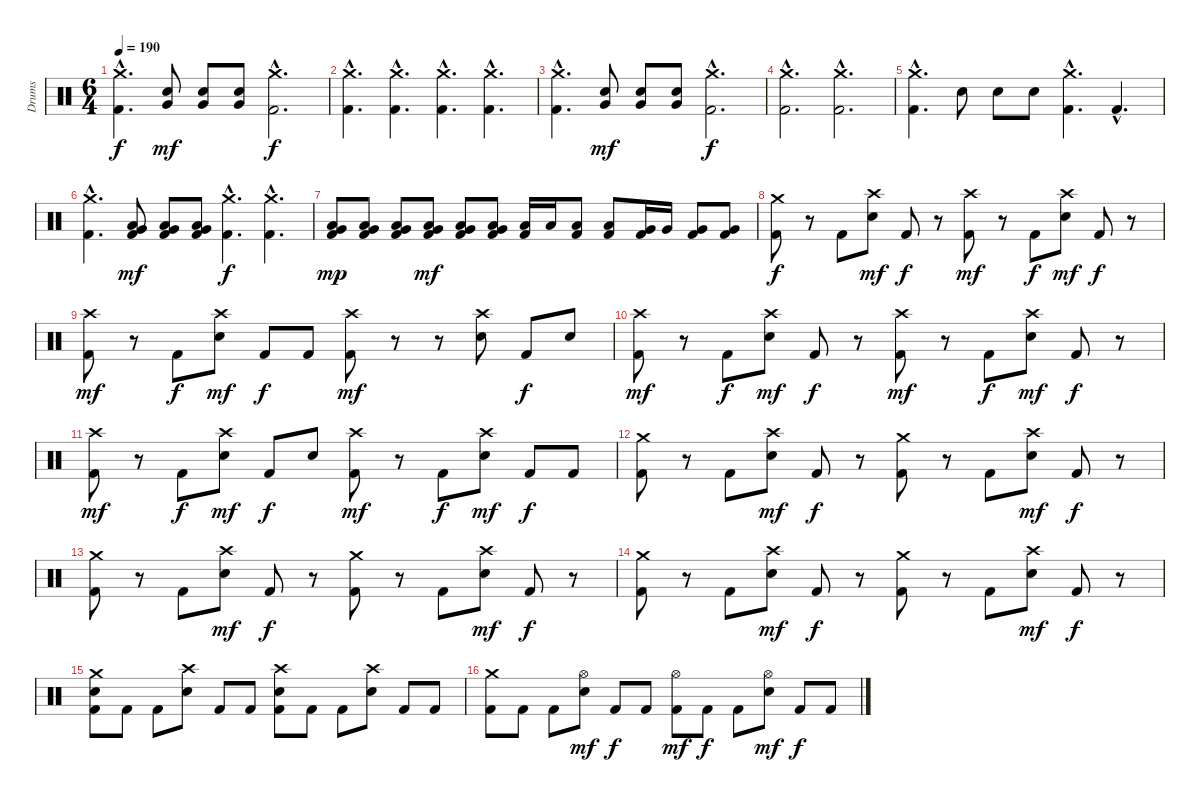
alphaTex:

\track ("Drums" "Drums") {instrument percussion}
\staff {score}
\articulation defaults
\ts (6 4)
\tempo 190
\clef neutral
\ks c
("Crash medium (hit)"{hac} "Kick (hit) 2"{hac}).4{d dy f} ("Very Low Tom (hit)" "Snare (hit) 2").8{dy mf} ("Very Low Tom (hit)" "Snare (hit) 2").8 ("Very Low Tom (hit)" "Snare (hit) 2").8 ("Crash medium (hit)"{hac} "Kick (hit) 2"{hac}).2{d dy f} |
("Crash medium (hit)"{hac} "Kick (hit) 2"{hac}).4{d} ("Crash medium (hit)"{hac} "Kick (hit) 2"{hac}).4{d} ("Crash medium (hit)"{hac} "Kick (hit) 2"{hac}).4{d} ("Crash medium (hit)"{hac} "Kick (hit) 2"{hac}).4{d} |
("Crash medium (hit)"{hac} "Kick (hit) 2"{hac}).4{d} ("Very Low Tom (hit)" "Snare (hit) 2").8{dy mf} ("Very Low Tom (hit)" "Snare (hit) 2").8 ("Very Low Tom (hit)" "Snare (hit) 2").8 ("Crash medium (hit)"{hac} "Kick (hit) 2"{hac}).2{d dy f} |
("Crash medium (hit)"{hac} "Kick (hit) 2"{hac}).2{d} ("Crash medium (hit)"{hac} "Kick (hit) 2"{hac}).2{d} |
("Crash medium (hit)"{hac} "Kick (hit) 2"{hac}).4{d} "Snare (hit) 2".8 "Snare (hit) 2".8 "Snare (hit) 2".8 ("Crash medium (hit)"{hac} "Kick (hit) 2"{hac}).4{d} "Kick (hit) 2"{hac}.4{d} |
("Crash medium (hit)"{hac} "Kick (hit) 2"{hac}).4{d} ("Very Low Tom (hit)" "Low Floor Tom (hit)" "Kick (hit) 2").8{dy mf} ("Very Low Tom (hit)" "Low Floor Tom (hit)" "Kick (hit) 2").8 ("Very Low Tom (hit)" "Low Floor Tom (hit)" "Kick (hit) 2").8 ("Crash medium (hit)"{hac} "Kick (hit) 2"{hac}).4{d dy f} ("Crash medium (hit)"{hac} "Kick (hit) 2"{hac}).4{d} |
("Very Low Tom (hit)" "Low Floor Tom (hit)" "Kick (hit) 2").8{dy mp} ("Very Low Tom (hit)" "Low Floor Tom (hit)" "Kick (hit) 2").8 ("Very Low Tom (hit)" "Low Floor Tom (hit)" "Kick (hit) 2").8 ("Very Low Tom (hit)" "Low Floor Tom (hit)" "Kick (hit) 2").8{dy mf} ("Very Low Tom (hit)" "Low Floor Tom (hit)" "Kick (hit) 2").8 ("Very Low Tom (hit)" "Low Floor Tom (hit)" "Kick (hit) 2").8 ("Low Tom (hit)" "Kick (hit) 2").16 "Low Tom (hit)".16 ("Low Tom (hit)" "Kick (hit) 2").8 ("Low Tom (hit)" "Kick (hit) 2").8 ("Very Low Tom (hit)" "Kick (hit) 2").16 "Very Low Tom (hit)".16 ("Very Low Tom (hit)" "Kick (hit) 2").8 ("Very Low Tom (hit)" "Kick (hit) 2").8 |
("Crash medium (hit)" "Kick (hit) 2").8{dy f} r.8 "Kick (hit) 2".8 ("Crash high (hit)" "Snare (hit) 2").8{dy mf} "Kick (hit) 2".8{dy f} r.8 ("Crash high (hit)" "Kick (hit) 2").8{dy mf} r.8 "Kick (hit) 2".8{dy f} ("Crash high (hit)" "Snare (hit) 2").8{dy mf} "Kick (hit) 2".8{dy f} r.8 |
("Crash high (hit)" "Kick (hit) 2").8{dy mf} r.8 "Kick (hit) 2".8{dy f} ("Crash high (hit)" "Snare (hit) 2").8{dy mf} "Kick (hit) 2".8{dy f} "Kick (hit) 2".8 ("Crash high (hit)" "Kick (hit) 2").8{dy mf} r.8 r.8 ("Crash high (hit)" "Snare (hit) 2").8 "Kick (hit) 2".8{dy f} "Snare (hit) 2".8 |
("Crash high (hit)" "Kick (hit) 2").8{dy mf} r.8 "Kick (hit) 2".8{dy f} ("Crash high (hit)" "Snare (hit) 2").8{dy mf} "Kick (hit) 2".8{dy f} r.8 ("Crash high (hit)" "Kick (hit) 2").8{dy mf} r.8 "Kick (hit) 2".8{dy f} ("Crash high (hit)" "Snare (hit) 2").8{dy mf} "Kick (hit) 2".8{dy f} r.8 |
("Crash high (hit)" "Kick (hit) 2").8{dy mf} r.8 "Kick (hit) 2".8{dy f} ("Crash high (hit)" "Snare (hit) 2").8{dy mf} "Kick (hit) 2".8{dy f} "Snare (hit) 2".8 ("Crash high (hit)" "Kick (hit) 2").8{dy mf} r.8 "Kick (hit) 2".8{dy f} ("Crash high (hit)" "Snare (hit) 2").8{dy mf} "Kick (hit) 2".8{dy f} "Kick (hit) 2".8 |
("Crash medium (hit)" "Kick (hit) 2").8 r.8 "Kick (hit) 2".8 ("Crash high (hit)" "Snare (hit) 2").8{dy mf} "Kick (hit) 2".8{dy f} r.8 ("Crash medium (hit)" "Kick (hit) 2").8 r.8 "Kick (hit) 2".8 ("Crash high (hit)" "Snare (hit) 2").8{dy mf} "Kick (hit) 2".8{dy f} r.8 |
("Crash medium (hit)" "Kick (hit) 2").8 r.8 "Kick (hit) 2".8 ("Crash high (hit)" "Snare (hit) 2").8{dy mf} "Kick (hit) 2".8{dy f} r.8 ("Crash medium (hit)" "Kick (hit) 2").8 r.8 "Kick (hit) 2".8 ("Crash high (hit)" "Snare (hit) 2").8{dy mf} "Kick (hit) 2".8{dy f} r.8 |
("Crash medium (hit)" "Kick (hit) 2").8 r.8 "Kick (hit) 2".8 ("Crash high (hit)" "Snare (hit) 2").8{dy mf} "Kick (hit) 2".8{dy f} r.8 ("Crash medium (hit)" "Kick (hit) 2").8 r.8 "Kick (hit) 2".8 ("Crash high (hit)" "Snare (hit) 2").8{dy mf} "Kick (hit) 2".8{dy f} r.8 |
("Crash medium (hit)" "Snare (hit) 2" "Kick (hit) 2").8 "Kick (hit) 2".8 "Kick (hit) 2".8 ("Crash high (hit)" "Snare (hit) 2").8 "Kick (hit) 2".8 "Kick (hit) 2".8 ("Crash high (hit)" "Snare (hit) 2" "Kick (hit) 2").8 "Kick (hit) 2".8 "Kick (hit) 2".8 ("Crash high (hit)" "Snare (hit) 2").8 "Kick (hit) 2".8 "Kick (hit) 2".8 |
("Crash medium (hit)" "Kick (hit) 2").8 "Kick (hit) 2".8 "Kick (hit) 2".8 ("Hi-Hat (open)" "Snare (hit) 2").8{dy mf} "Kick (hit) 2".8{dy f} "Kick (hit) 2".8 ("Hi-Hat (open)" "Kick (hit) 2").8{dy mf} "Kick (hit) 2".8{dy f} "Kick (hit) 2".8 ("Hi-Hat (open)" "Snare (hit) 2").8{dy mf} "Kick (hit) 2".8{dy f} "Kick (hit) 2".8
